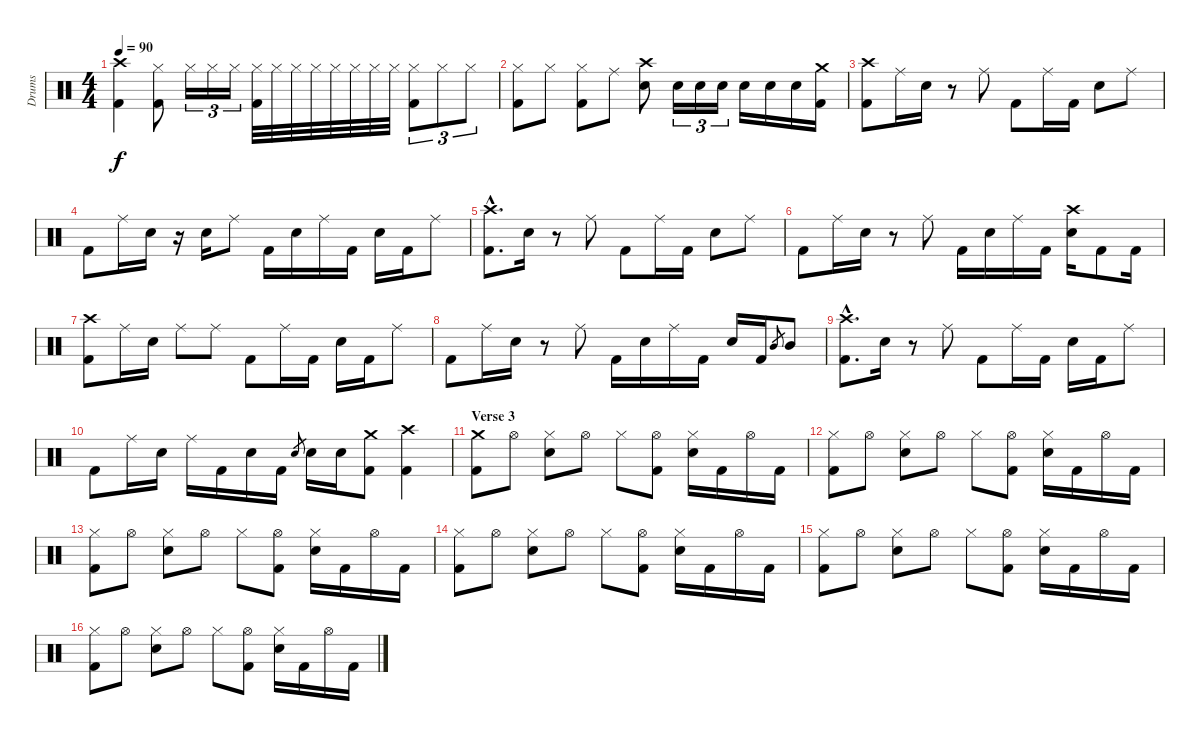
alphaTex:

\track ("Drums" "Drums") {instrument percussion}
\staff {score}
\articulation defaults
\ts (4 4)
\tempo 90
\clef neutral
\ks c
("Crash high (hit)" "Kick (hit) 2").4{dy f} ("Hi-Hat (closed)" "Kick (hit) 2").8 "Hi-Hat (closed)".16{tu (3 2)} "Hi-Hat (closed)".16{tu (3 2)} "Hi-Hat (closed)".16{tu (3 2)} ("Hi-Hat (closed)" "Kick (hit) 2").32 "Hi-Hat (closed)".32 "Hi-Hat (closed)".32 "Hi-Hat (closed)".32 "Hi-Hat (closed)".32 "Hi-Hat (closed)".32 "Hi-Hat (closed)".32 "Hi-Hat (closed)".32 ("Hi-Hat (closed)" "Kick (hit) 2").8{tu (3 2)} "Hi-Hat (closed)".8{tu (3 2)} "Hi-Hat (closed)".8{tu (3 2)} |
("Hi-Hat (closed)" "Kick (hit) 2").8 "Hi-Hat (closed)".8 ("Hi-Hat (closed)" "Kick (hit) 2").8 "Ride (middle)".8 ("Crash high (hit)" "Electric Snare (hit)").8 "Electric Snare (hit)".16{tu (3 2)} "Electric Snare (hit)".16{tu (3 2)} "Electric Snare (hit)".16{tu (3 2)} "Electric Snare (hit)".16 "Electric Snare (hit)".16 "Electric Snare (hit)".16 ("Crash medium (hit)" "Kick (hit) 2").16 |
("Crash high (hit)" "Kick (hit) 2").8 "Ride (middle)".16 "Electric Snare (hit)".16 r.8 "Ride (middle)".8 "Kick (hit) 2".8 "Ride (middle)".16 "Kick (hit) 2".16 "Electric Snare (hit)".8 "Ride (middle)".8 |
"Kick (hit) 2".8 "Ride (middle)".16 "Electric Snare (hit)".16 r.16 "Electric Snare (hit)".16 "Ride (middle)".8 "Kick (hit) 2".16 "Electric Snare (hit)".16 "Ride (middle)".16 "Kick (hit) 2".16 "Electric Snare (hit)".16 "Kick (hit) 2".16 "Ride (middle)".8 |
("Crash high (hit)"{hac} "Kick (hit) 2"{hac}).8{d} "Electric Snare (hit)".16 r.8 "Ride (middle)".8 "Kick (hit) 2".8 "Ride (middle)".16 "Kick (hit) 2".16 "Electric Snare (hit)".8 "Ride (middle)".8 |
"Kick (hit) 2".8 "Ride (middle)".16 "Electric Snare (hit)".16 r.8 "Ride (middle)".8 "Kick (hit) 2".16 "Electric Snare (hit)".16 "Ride (middle)".16 "Kick (hit) 2".16 ("Crash high (hit)" "Electric Snare (hit)").16 "Kick (hit) 2".8 "Kick (hit) 2".16 |
("Crash high (hit)" "Kick (hit) 2").8 "Ride (middle)".16 "Electric Snare (hit)".16 "Ride (middle)".8 "Ride (middle)".8 "Kick (hit) 2".8 "Ride (middle)".16 "Kick (hit) 2".16 "Electric Snare (hit)".16 "Kick (hit) 2".16 "Ride (middle)".8 |
"Kick (hit) 2".8 "Ride (middle)".16 "Electric Snare (hit)".16 r.8 "Ride (middle)".8 "Kick (hit) 2".16 "Electric Snare (hit)".16 "Ride (middle)".16 "Kick (hit) 2".16 "Electric Snare (hit)".16 "Kick (hit) 2".16 "Mid Tom (hit)".8{gr} "Mid Tom (hit)".8 |
("Crash high (hit)"{hac} "Kick (hit) 2"{hac}).8{d} "Electric Snare (hit)".16 r.8 "Ride (middle)".8 "Kick (hit) 2".8 "Ride (middle)".16 "Kick (hit) 2".16 "Electric Snare (hit)".16 "Kick (hit) 2".16 "Ride (middle)".8 |
"Kick (hit) 2".8 "Ride (middle)".16 "Electric Snare (hit)".16 "Ride (middle)".16 "Kick (hit) 2".16 "Electric Snare (hit)".16 "Kick (hit) 2".16 "Electric Snare (hit)".8{gr} "Electric Snare (hit)".16 "Electric Snare (hit)".16 ("Crash medium (hit)" "Kick (hit) 2").8 ("Crash high (hit)" "Kick (hit) 2").4 |
\section ("" "Verse 3")
("Crash medium (hit)" "Kick (hit) 2").8 "Hi-Hat (open)".8 ("Hi-Hat (closed)" "Electric Snare (hit)").8 "Hi-Hat (open)".8 "Hi-Hat (closed)".8 ("Hi-Hat (open)" "Kick (hit) 2").8 ("Hi-Hat (closed)" "Electric Snare (hit)").16 "Kick (hit) 2".16 "Hi-Hat (open)".16 "Kick (hit) 2".16 |
("Hi-Hat (closed)" "Kick (hit) 2").8 "Hi-Hat (open)".8 ("Hi-Hat (closed)" "Electric Snare (hit)").8 "Hi-Hat (open)".8 "Hi-Hat (closed)".8 ("Hi-Hat (open)" "Kick (hit) 2").8 ("Hi-Hat (closed)" "Electric Snare (hit)").16 "Kick (hit) 2".16 "Hi-Hat (open)".16 "Kick (hit) 2".16 |
("Hi-Hat (closed)" "Kick (hit) 2").8 "Hi-Hat (open)".8 ("Hi-Hat (closed)" "Electric Snare (hit)").8 "Hi-Hat (open)".8 "Hi-Hat (closed)".8 ("Hi-Hat (open)" "Kick (hit) 2").8 ("Hi-Hat (closed)" "Electric Snare (hit)").16 "Kick (hit) 2".16 "Hi-Hat (open)".16 "Kick (hit) 2".16 |
("Hi-Hat (closed)" "Kick (hit) 2").8 "Hi-Hat (open)".8 ("Hi-Hat (closed)" "Electric Snare (hit)").8 "Hi-Hat (open)".8 "Hi-Hat (closed)".8 ("Hi-Hat (open)" "Kick (hit) 2").8 ("Hi-Hat (closed)" "Electric Snare (hit)").16 "Kick (hit) 2".16 "Hi-Hat (open)".16 "Kick (hit) 2".16 |
("Hi-Hat (closed)" "Kick (hit) 2").8 "Hi-Hat (open)".8 ("Hi-Hat (closed)" "Electric Snare (hit)").8 "Hi-Hat (open)".8 "Hi-Hat (closed)".8 ("Hi-Hat (open)" "Kick (hit) 2").8 ("Hi-Hat (closed)" "Electric Snare (hit)").16 "Kick (hit) 2".16 "Hi-Hat (open)".16 "Kick (hit) 2".16 |
("Hi-Hat (closed)" "Kick (hit) 2").8 "Hi-Hat (open)".8 ("Hi-Hat (closed)" "Electric Snare (hit)").8 "Hi-Hat (open)".8 "Hi-Hat (closed)".8 ("Hi-Hat (open)" "Kick (hit) 2").8 ("Hi-Hat (closed)" "Electric Snare (hit)").16 "Kick (hit) 2".16 "Hi-Hat (open)".16 "Kick (hit) 2".16
